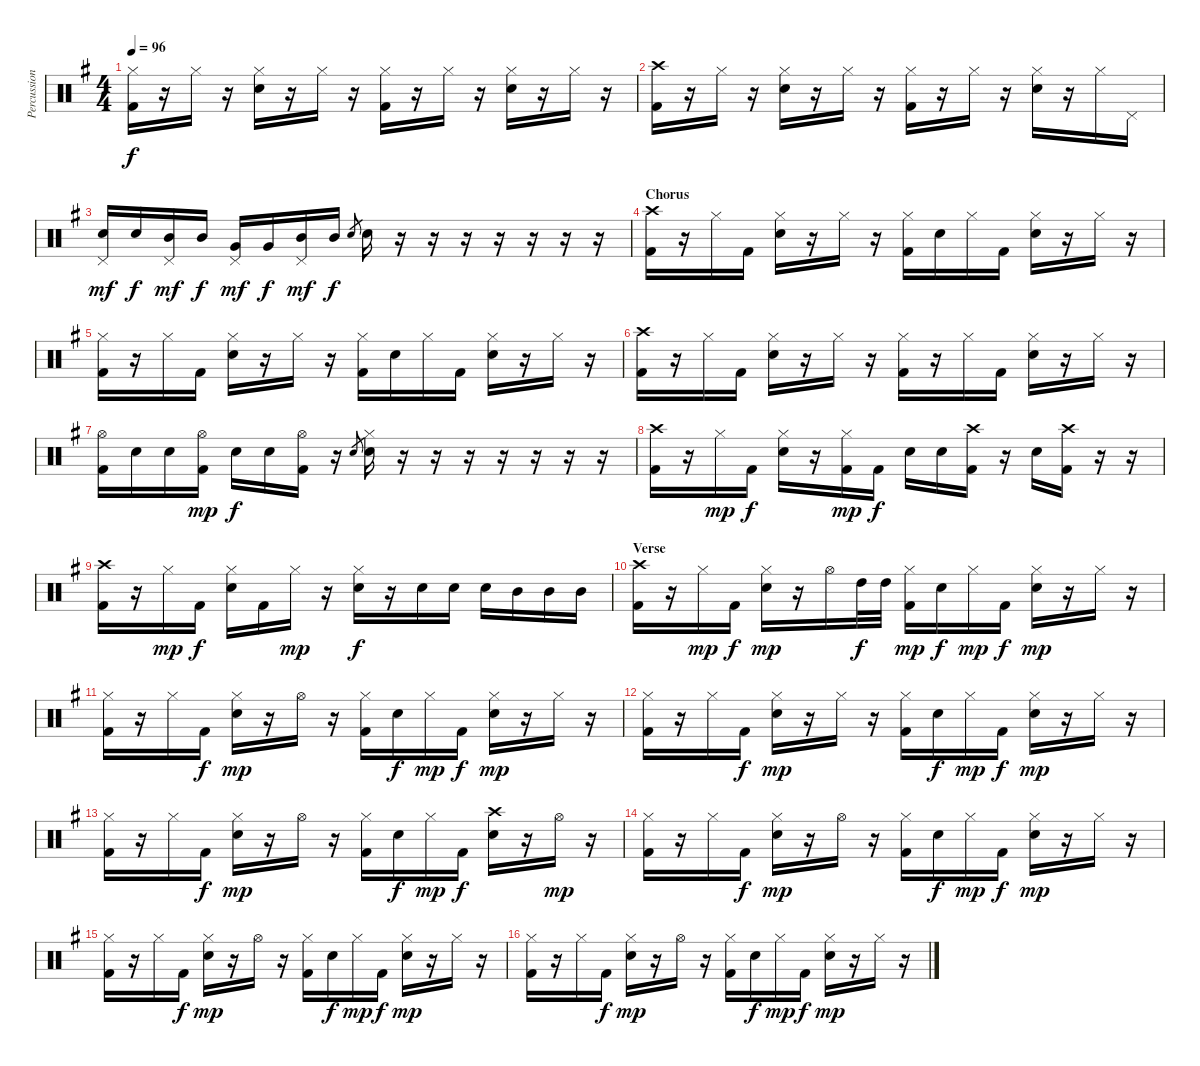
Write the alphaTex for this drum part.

\track ("Percussion" "Percussion") {instrument percussion}
\staff {score}
\articulation defaults
\ts (4 4)
\tempo 96
\clef neutral
\ks g
("Hi-Hat (closed)" "Kick (hit) 2").16{dy f} r.16 "Hi-Hat (closed)".16 r.16 ("Hi-Hat (closed)" "Snare (hit) 2").16 r.16 "Hi-Hat (closed)".16 r.16 ("Hi-Hat (closed)" "Kick (hit) 2").16 r.16 "Hi-Hat (closed)".16 r.16 ("Hi-Hat (closed)" "Snare (hit) 2").16 r.16 "Hi-Hat (closed)".16 r.16 |
("Crash high (hit)" "Kick (hit) 2").16 r.16 "Hi-Hat (closed)".16 r.16 ("Hi-Hat (closed)" "Snare (hit) 2").16 r.16 "Hi-Hat (closed)".16 r.16 ("Hi-Hat (closed)" "Kick (hit) 2").16 r.16 "Hi-Hat (closed)".16 r.16 ("Hi-Hat (closed)" "Snare (hit) 2").16 r.16 "Hi-Hat (closed)".16 "Pedal Hi-Hat (hit)".16 |
("Pedal Hi-Hat (hit)" "Snare (hit) 2").16{dy mf} "Snare (hit) 2".16{dy f} ("Pedal Hi-Hat (hit)" "Mid Tom (hit)").16{dy mf} "Mid Tom (hit)".16{dy f} ("Pedal Hi-Hat (hit)" "Very Low Tom (hit)").16{dy mf} "Very Low Tom (hit)".16{dy f} ("Pedal Hi-Hat (hit)" "Mid Tom (hit)").16{dy mf} "Mid Tom (hit)".16{dy f} "Snare (hit) 2".8{gr} "Snare (hit) 2".16 r.16 r.16 r.16 r.16 r.16 r.16 r.16 |
\section ("" "Chorus")
("Crash high (hit)" "Kick (hit) 2").16 r.16 "Hi-Hat (closed)".16 "Kick (hit) 2".16 ("Hi-Hat (closed)" "Snare (hit) 2").16 r.16 "Hi-Hat (closed)".16 r.16 ("Hi-Hat (closed)" "Kick (hit) 2").16 "Snare (hit) 2".16 "Hi-Hat (closed)".16 "Kick (hit) 2".16 ("Hi-Hat (closed)" "Snare (hit) 2").16 r.16 "Hi-Hat (closed)".16 r.16 |
("Hi-Hat (closed)" "Kick (hit) 2").16 r.16 "Hi-Hat (closed)".16 "Kick (hit) 2".16 ("Hi-Hat (closed)" "Snare (hit) 2").16 r.16 "Hi-Hat (closed)".16 r.16 ("Hi-Hat (closed)" "Kick (hit) 2").16 "Snare (hit) 2".16 "Hi-Hat (closed)".16 "Kick (hit) 2".16 ("Hi-Hat (closed)" "Snare (hit) 2").16 r.16 "Hi-Hat (closed)".16 r.16 |
("Crash high (hit)" "Kick (hit) 2").16 r.16 "Hi-Hat (closed)".16 "Kick (hit) 2".16 ("Hi-Hat (closed)" "Snare (hit) 2").16 r.16 "Hi-Hat (closed)".16 r.16 ("Hi-Hat (closed)" "Kick (hit) 2").16 r.16 "Hi-Hat (closed)".16 "Kick (hit) 2".16 ("Hi-Hat (closed)" "Snare (hit) 2").16 r.16 "Hi-Hat (closed)".16 r.16 |
("Hi-Hat (open)" "Kick (hit) 2").16 "Snare (hit) 2".16 "Snare (hit) 2".16 ("Hi-Hat (open)" "Kick (hit) 2").16{dy mp} "Snare (hit) 2".16{dy f} "Snare (hit) 2".16 ("Hi-Hat (open)" "Kick (hit) 2").16 r.16 "Snare (hit) 2".8{gr} ("Hi-Hat (closed)" "Snare (hit) 2").16 r.16 r.16 r.16 r.16 r.16 r.16 r.16 |
("Crash high (hit)" "Kick (hit) 2").16 r.16 "Hi-Hat (closed)".16{dy mp} "Kick (hit) 2".16{dy f} ("Hi-Hat (closed)" "Snare (hit) 2").16 r.16 ("Hi-Hat (closed)" "Kick (hit) 2").16{dy mp} "Kick (hit) 2".16{dy f} "Snare (hit) 2".16 "Snare (hit) 2".16 ("Crash high (hit)" "Kick (hit) 2").16 r.16 "Snare (hit) 2".16 ("Crash high (hit)" "Kick (hit) 2").16 r.16 r.16 |
("Crash high (hit)" "Kick (hit) 2").16 r.16 "Hi-Hat (closed)".16{dy mp} "Kick (hit) 2".16{dy f} ("Hi-Hat (closed)" "Snare (hit) 2").16 "Kick (hit) 2".16 "Hi-Hat (closed)".16{dy mp} r.16 ("Hi-Hat (closed)" "Snare (hit) 2").16{dy f} r.16 "Snare (hit) 2".16 "Snare (hit) 2".16 "Snare (hit) 2".16 "Mid Tom (hit)".16 "Mid Tom (hit)".16 "Mid Tom (hit)".16 |
\section ("" "Verse")
("Crash high (hit)" "Kick (hit) 2").16 r.16 "Hi-Hat (closed)".16{dy mp} "Kick (hit) 2".16{dy f} ("Hi-Hat (closed)" "Snare (hit) 2").16{dy mp} r.16 "Hi-Hat (open)".16 "High Tom (hit)".32{dy f} "High Tom (hit)".32 ("Hi-Hat (closed)" "Kick (hit) 2").16{dy mp} "Snare (hit) 2".16{dy f} "Hi-Hat (closed)".16{dy mp} "Kick (hit) 2".16{dy f} ("Hi-Hat (closed)" "Snare (hit) 2").16{dy mp} r.16 "Hi-Hat (closed)".16 r.16 |
("Hi-Hat (closed)" "Kick (hit) 2").16 r.16 "Hi-Hat (closed)".16 "Kick (hit) 2".16{dy f} ("Hi-Hat (closed)" "Snare (hit) 2").16{dy mp} r.16 "Hi-Hat (open)".16 r.16 ("Hi-Hat (closed)" "Kick (hit) 2").16 "Snare (hit) 2".16{dy f} "Hi-Hat (closed)".16{dy mp} "Kick (hit) 2".16{dy f} ("Hi-Hat (closed)" "Snare (hit) 2").16{dy mp} r.16 "Hi-Hat (closed)".16 r.16 |
("Hi-Hat (closed)" "Kick (hit) 2").16 r.16 "Hi-Hat (closed)".16 "Kick (hit) 2".16{dy f} ("Hi-Hat (closed)" "Snare (hit) 2").16{dy mp} r.16 "Hi-Hat (closed)".16 r.16 ("Hi-Hat (closed)" "Kick (hit) 2").16 "Snare (hit) 2".16{dy f} "Hi-Hat (closed)".16{dy mp} "Kick (hit) 2".16{dy f} ("Hi-Hat (closed)" "Snare (hit) 2").16{dy mp} r.16 "Hi-Hat (closed)".16 r.16 |
("Hi-Hat (closed)" "Kick (hit) 2").16 r.16 "Hi-Hat (closed)".16 "Kick (hit) 2".16{dy f} ("Hi-Hat (closed)" "Snare (hit) 2").16{dy mp} r.16 "Hi-Hat (open)".16 r.16 ("Hi-Hat (closed)" "Kick (hit) 2").16 "Snare (hit) 2".16{dy f} "Hi-Hat (closed)".16{dy mp} "Kick (hit) 2".16{dy f} ("Crash high (hit)" "Snare (hit) 2").16 r.16 "Hi-Hat (open)".16{dy mp} r.16 |
("Hi-Hat (closed)" "Kick (hit) 2").16 r.16 "Hi-Hat (closed)".16 "Kick (hit) 2".16{dy f} ("Hi-Hat (closed)" "Snare (hit) 2").16{dy mp} r.16 "Hi-Hat (open)".16 r.16 ("Hi-Hat (closed)" "Kick (hit) 2").16 "Snare (hit) 2".16{dy f} "Hi-Hat (closed)".16{dy mp} "Kick (hit) 2".16{dy f} ("Hi-Hat (closed)" "Snare (hit) 2").16{dy mp} r.16 "Hi-Hat (closed)".16 r.16 |
("Hi-Hat (closed)" "Kick (hit) 2").16 r.16 "Hi-Hat (closed)".16 "Kick (hit) 2".16{dy f} ("Hi-Hat (closed)" "Snare (hit) 2").16{dy mp} r.16 "Hi-Hat (open)".16 r.16 ("Hi-Hat (closed)" "Kick (hit) 2").16 "Snare (hit) 2".16{dy f} "Hi-Hat (closed)".16{dy mp} "Kick (hit) 2".16{dy f} ("Hi-Hat (closed)" "Snare (hit) 2").16{dy mp} r.16 "Hi-Hat (closed)".16 r.16 |
("Hi-Hat (closed)" "Kick (hit) 2").16 r.16 "Hi-Hat (closed)".16 "Kick (hit) 2".16{dy f} ("Hi-Hat (closed)" "Snare (hit) 2").16{dy mp} r.16 "Hi-Hat (open)".16 r.16 ("Hi-Hat (closed)" "Kick (hit) 2").16 "Snare (hit) 2".16{dy f} "Hi-Hat (closed)".16{dy mp} "Kick (hit) 2".16{dy f} ("Hi-Hat (closed)" "Snare (hit) 2").16{dy mp} r.16 "Hi-Hat (closed)".16 r.16
